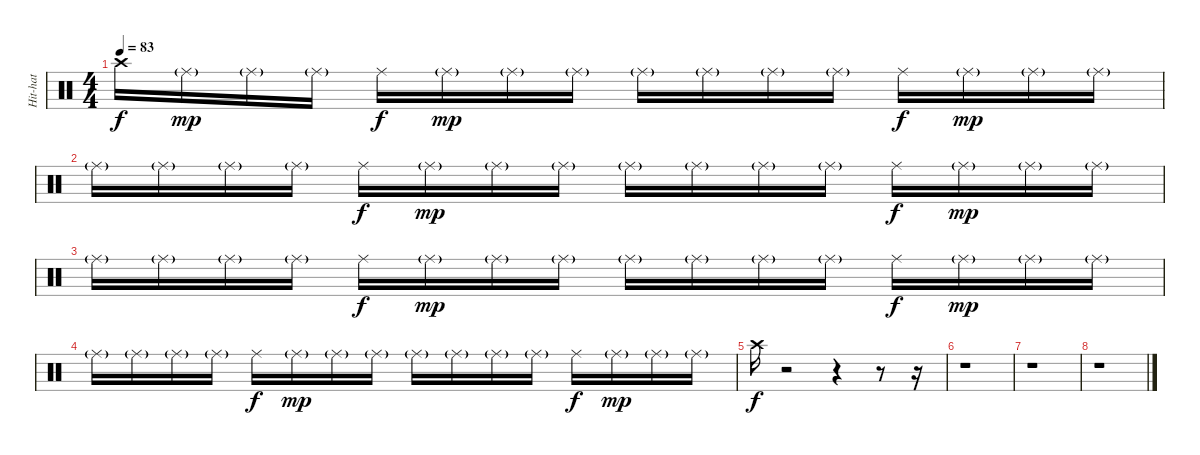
\track ("Hit-hat" "Hit-hat") {instrument percussion}
\staff {score}
\articulation defaults
\ts (4 4)
\tempo 83
\clef neutral
\ks c "Crash high (hit)".16{dy f} "Ride (middle)"{g}.16{dy mp} "Ride (middle)"{g}.16 "Ride (middle)"{g}.16 "Ride (middle)".16{dy f} "Ride (middle)"{g}.16{dy mp} "Ride (middle)"{g}.16 "Ride (middle)"{g}.16 "Ride (middle)"{g}.16 "Ride (middle)"{g}.16 "Ride (middle)"{g}.16 "Ride (middle)"{g}.16 "Ride (middle)".16{dy f} "Ride (middle)"{g}.16{dy mp} "Ride (middle)"{g}.16 "Ride (middle)"{g}.16
|
"Ride (middle)"{g}.16 "Ride (middle)"{g}.16 "Ride (middle)"{g}.16 "Ride (middle)"{g}.16 "Ride (middle)".16{dy f} "Ride (middle)"{g}.16{dy mp} "Ride (middle)"{g}.16 "Ride (middle)"{g}.16 "Ride (middle)"{g}.16 "Ride (middle)"{g}.16 "Ride (middle)"{g}.16 "Ride (middle)"{g}.16 "Ride (middle)".16{dy f} "Ride (middle)"{g}.16{dy mp} "Ride (middle)"{g}.16 "Ride (middle)"{g}.16 |
"Ride (middle)"{g}.16 "Ride (middle)"{g}.16 "Ride (middle)"{g}.16 "Ride (middle)"{g}.16 "Ride (middle)".16{dy f} "Ride (middle)"{g}.16{dy mp} "Ride (middle)"{g}.16 "Ride (middle)"{g}.16 "Ride (middle)"{g}.16 "Ride (middle)"{g}.16 "Ride (middle)"{g}.16 "Ride (middle)"{g}.16 "Ride (middle)".16{dy f} "Ride (middle)"{g}.16{dy mp} "Ride (middle)"{g}.16 "Ride (middle)"{g}.16 |
"Ride (middle)"{g}.16 "Ride (middle)"{g}.16 "Ride (middle)"{g}.16 "Ride (middle)"{g}.16 "Ride (middle)".16{dy f} "Ride (middle)"{g}.16{dy mp} "Ride (middle)"{g}.16 "Ride (middle)"{g}.16 "Ride (middle)"{g}.16 "Ride (middle)"{g}.16 "Ride (middle)"{g}.16 "Ride (middle)"{g}.16 "Ride (middle)".16{dy f} "Ride (middle)"{g}.16{dy mp} "Ride (middle)"{g}.16 "Ride (middle)"{g}.16 |
"Crash high (hit)".16{dy f} r.2 r.4 r.8 r.16 |
r.1 |
r.1 |
r.1
